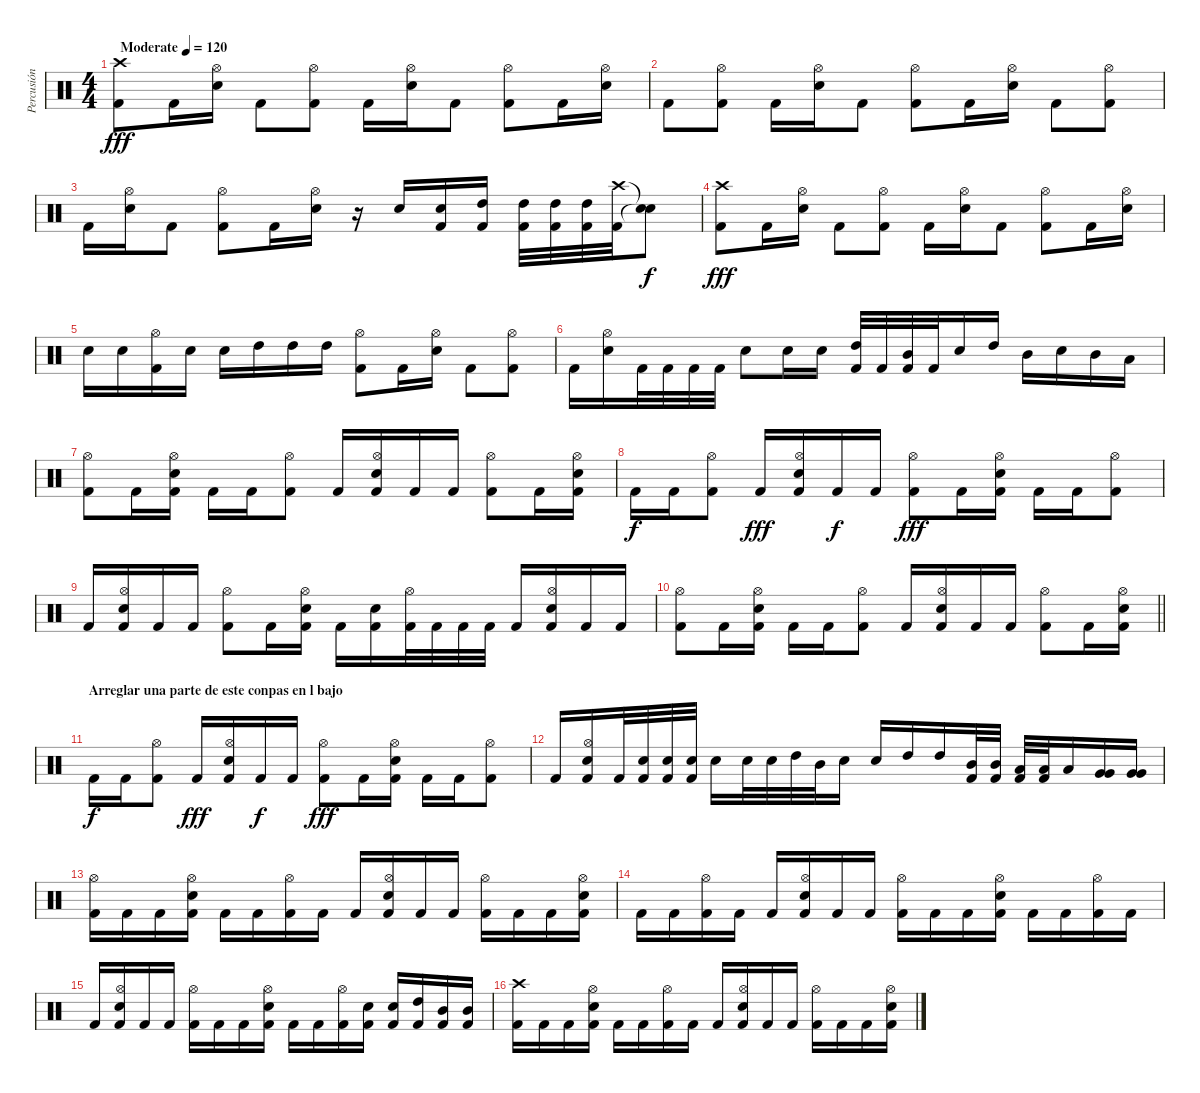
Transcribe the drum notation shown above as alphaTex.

\track ("Percusión" "Percusión") {instrument percussion}
\staff {score}
\articulation defaults
\ts (4 4)
\tempo (120 "Moderate")
\clef neutral
\ks c
("Crash high (hit)" "Kick (hit) 2").8{dy fff} "Kick (hit) 2".16 ("Hi-Hat (open)" "Electric Snare (hit)").16 "Kick (hit) 2".8 ("Hi-Hat (open)" "Kick (hit) 2").8 "Kick (hit) 2".16 ("Hi-Hat (open)" "Electric Snare (hit)").16 "Kick (hit) 2".8 ("Hi-Hat (open)" "Kick (hit) 2").8 "Kick (hit) 2".16 ("Hi-Hat (open)" "Electric Snare (hit)").16 |
"Kick (hit) 2".8 ("Hi-Hat (open)" "Kick (hit) 2").8 "Kick (hit) 2".16 ("Hi-Hat (open)" "Electric Snare (hit)").16 "Kick (hit) 2".8 ("Hi-Hat (open)" "Kick (hit) 2").8 "Kick (hit) 2".16 ("Hi-Hat (open)" "Electric Snare (hit)").16 "Kick (hit) 2".8 ("Hi-Hat (open)" "Kick (hit) 2").8 |
"Kick (hit) 2".16 ("Hi-Hat (open)" "Electric Snare (hit)").16 "Kick (hit) 2".8 ("Hi-Hat (open)" "Kick (hit) 2").8 "Kick (hit) 2".16 ("Hi-Hat (open)" "Electric Snare (hit)").16 r.16 "Electric Snare (hit)".16 ("Electric Snare (hit)" "Kick (hit) 2").16 ("High Tom (hit)" "Kick (hit) 2").16 ("High Tom (hit)" "Kick (hit) 2").32 ("High Tom (hit)" "Kick (hit) 2").32 ("High Tom (hit)" "Kick (hit) 2").32 ("Crash high (hit)" "Kick (hit) 2").32 ("Snare (hit)"{t} "Snare (hit)"{t}).8{dy f} |
("Crash high (hit)" "Kick (hit) 2").8{dy fff} "Kick (hit) 2".16 ("Hi-Hat (open)" "Electric Snare (hit)").16 "Kick (hit) 2".8 ("Hi-Hat (open)" "Kick (hit) 2").8 "Kick (hit) 2".16 ("Hi-Hat (open)" "Electric Snare (hit)").16 "Kick (hit) 2".8 ("Hi-Hat (open)" "Kick (hit) 2").8 "Kick (hit) 2".16 ("Hi-Hat (open)" "Electric Snare (hit)").16 |
"Electric Snare (hit)".16 "Electric Snare (hit)".16 ("Hi-Hat (open)" "Kick (hit) 2").16 "Electric Snare (hit)".16 "Electric Snare (hit)".16 "High Tom (hit)".16 "High Tom (hit)".16 "High Tom (hit)".16 ("Hi-Hat (open)" "Kick (hit) 2").8 "Kick (hit) 2".16 ("Hi-Hat (open)" "Electric Snare (hit)").16 "Kick (hit) 2".8 ("Hi-Hat (open)" "Kick (hit) 2").8 |
"Kick (hit) 2".16 ("Hi-Hat (open)" "Electric Snare (hit)").16 "Kick (hit) 2".32 "Kick (hit) 2".32 "Kick (hit) 2".32 "Kick (hit) 2".32 "Electric Snare (hit)".8 "Electric Snare (hit)".16 "Electric Snare (hit)".16 ("High Tom (hit)" "Kick (hit) 2").32 "Kick (hit) 2".32 ("Mid Tom (hit)" "Kick (hit) 2").32 "Kick (hit) 2".32 "Electric Snare (hit)".16 "High Tom (hit)".16 "Mid Tom (hit)".16 "Electric Snare (hit)".16 "Mid Tom (hit)".16 "Low Tom (hit)".16 |
("Hi-Hat (open)" "Kick (hit) 2").8 "Kick (hit) 2".16 ("Hi-Hat (open)" "Electric Snare (hit)" "Kick (hit) 2").16 "Kick (hit) 2".16 "Kick (hit) 2".16 ("Hi-Hat (open)" "Kick (hit) 2").8 "Kick (hit) 2".16 ("Hi-Hat (open)" "Electric Snare (hit)" "Kick (hit) 2").16 "Kick (hit) 2".16 "Kick (hit) 2".16 ("Hi-Hat (open)" "Kick (hit) 2").8 "Kick (hit) 2".16 ("Hi-Hat (open)" "Electric Snare (hit)" "Kick (hit) 2").16 |
"Kick (hit) 2".16{dy f} "Kick (hit) 2".16 ("Hi-Hat (open)" "Kick (hit) 2").8 "Kick (hit) 2".16{dy fff} ("Hi-Hat (open)" "Electric Snare (hit)" "Kick (hit) 2").16 "Kick (hit) 2".16{dy f} "Kick (hit) 2".16 ("Hi-Hat (open)" "Kick (hit) 2").8{dy fff} "Kick (hit) 2".16 ("Hi-Hat (open)" "Electric Snare (hit)" "Kick (hit) 2").16 "Kick (hit) 2".16 "Kick (hit) 2".16 ("Hi-Hat (open)" "Kick (hit) 2").8 |
"Kick (hit) 2".16 ("Hi-Hat (open)" "Electric Snare (hit)" "Kick (hit) 2").16 "Kick (hit) 2".16 "Kick (hit) 2".16 ("Hi-Hat (open)" "Kick (hit) 2").8 "Kick (hit) 2".16 ("Hi-Hat (open)" "Electric Snare (hit)" "Kick (hit) 2").16 "Kick (hit) 2".16 ("Electric Snare (hit)" "Kick (hit) 2").16 ("Hi-Hat (open)" "Kick (hit) 2").32 "Kick (hit) 2".32 "Kick (hit) 2".32 "Kick (hit) 2".32 "Kick (hit) 2".16 ("Hi-Hat (open)" "Electric Snare (hit)" "Kick (hit) 2").16 "Kick (hit) 2".16 "Kick (hit) 2".16 |
\barLineRight lightlight
("Hi-Hat (open)" "Kick (hit) 2").8 "Kick (hit) 2".16 ("Hi-Hat (open)" "Electric Snare (hit)" "Kick (hit) 2").16 "Kick (hit) 2".16 "Kick (hit) 2".16 ("Hi-Hat (open)" "Kick (hit) 2").8 "Kick (hit) 2".16 ("Hi-Hat (open)" "Electric Snare (hit)" "Kick (hit) 2").16 "Kick (hit) 2".16 "Kick (hit) 2".16 ("Hi-Hat (open)" "Kick (hit) 2").8 "Kick (hit) 2".16 ("Hi-Hat (open)" "Electric Snare (hit)" "Kick (hit) 2").16 |
\section ("" "Arreglar una parte de este conpas en l bajo")
"Kick (hit) 2".16{dy f} "Kick (hit) 2".16 ("Hi-Hat (open)" "Kick (hit) 2").8 "Kick (hit) 2".16{dy fff} ("Hi-Hat (open)" "Electric Snare (hit)" "Kick (hit) 2").16 "Kick (hit) 2".16{dy f} "Kick (hit) 2".16 ("Hi-Hat (open)" "Kick (hit) 2").8{dy fff} "Kick (hit) 2".16 ("Hi-Hat (open)" "Electric Snare (hit)" "Kick (hit) 2").16 "Kick (hit) 2".16 "Kick (hit) 2".16 ("Hi-Hat (open)" "Kick (hit) 2").8 |
"Kick (hit) 2".16 ("Hi-Hat (open)" "Electric Snare (hit)" "Kick (hit) 2").16 "Kick (hit) 2".32 ("Electric Snare (hit)" "Kick (hit) 2").32 ("Electric Snare (hit)" "Kick (hit) 2").32 ("Electric Snare (hit)" "Kick (hit) 2").32 "Electric Snare (hit)".16 "Electric Snare (hit)".32 "Electric Snare (hit)".32 "High Tom (hit)".32 "Mid Tom (hit)".32 "Electric Snare (hit)".16 "Electric Snare (hit)".16 "High Tom (hit)".16 "High Tom (hit)".16 ("Mid Tom (hit)" "Kick (hit) 2").32 ("Mid Tom (hit)" "Kick (hit) 2").32 ("Low Tom (hit)" "Kick (hit) 2").32 ("Low Tom (hit)" "Kick (hit) 2").32 "Low Tom (hit)".16 ("Very Low Tom (hit)" "Very Low Tom (hit)").16 ("Very Low Tom (hit)" "Very Low Tom (hit)").16 |
("Hi-Hat (open)" "Kick (hit) 2").16 "Kick (hit) 2".16 "Kick (hit) 2".16 ("Hi-Hat (open)" "Electric Snare (hit)" "Kick (hit) 2").16 "Kick (hit) 2".16 "Kick (hit) 2".16 ("Hi-Hat (open)" "Kick (hit) 2").16 "Kick (hit) 2".16 "Kick (hit) 2".16 ("Hi-Hat (open)" "Electric Snare (hit)" "Kick (hit) 2").16 "Kick (hit) 2".16 "Kick (hit) 2".16 ("Hi-Hat (open)" "Kick (hit) 2").16 "Kick (hit) 2".16 "Kick (hit) 2".16 ("Hi-Hat (open)" "Electric Snare (hit)" "Kick (hit) 2").16 |
"Kick (hit) 2".16 "Kick (hit) 2".16 ("Hi-Hat (open)" "Kick (hit) 2").16 "Kick (hit) 2".16 "Kick (hit) 2".16 ("Hi-Hat (open)" "Electric Snare (hit)" "Kick (hit) 2").16 "Kick (hit) 2".16 "Kick (hit) 2".16 ("Hi-Hat (open)" "Kick (hit) 2").16 "Kick (hit) 2".16 "Kick (hit) 2".16 ("Hi-Hat (open)" "Electric Snare (hit)" "Kick (hit) 2").16 "Kick (hit) 2".16 "Kick (hit) 2".16 ("Hi-Hat (open)" "Kick (hit) 2").16 "Kick (hit) 2".16 |
"Kick (hit) 2".16 ("Hi-Hat (open)" "Electric Snare (hit)" "Kick (hit) 2").16 "Kick (hit) 2".16 "Kick (hit) 2".16 ("Hi-Hat (open)" "Kick (hit) 2").16 "Kick (hit) 2".16 "Kick (hit) 2".16 ("Hi-Hat (open)" "Electric Snare (hit)" "Kick (hit) 2").16 "Kick (hit) 2".16 "Kick (hit) 2".16 ("Hi-Hat (open)" "Kick (hit) 2").16 ("Electric Snare (hit)" "Kick (hit) 2").16 ("Electric Snare (hit)" "Kick (hit) 2").16 ("High Tom (hit)" "Kick (hit) 2").16 ("Mid Tom (hit)" "Kick (hit) 2").16 ("Mid Tom (hit)" "Kick (hit) 2").16 |
("Crash high (hit)" "Kick (hit) 2").16 "Kick (hit) 2".16 "Kick (hit) 2".16 ("Hi-Hat (open)" "Electric Snare (hit)" "Kick (hit) 2").16 "Kick (hit) 2".16 "Kick (hit) 2".16 ("Hi-Hat (open)" "Kick (hit) 2").16 "Kick (hit) 2".16 "Kick (hit) 2".16 ("Hi-Hat (open)" "Electric Snare (hit)" "Kick (hit) 2").16 "Kick (hit) 2".16 "Kick (hit) 2".16 ("Hi-Hat (open)" "Kick (hit) 2").16 "Kick (hit) 2".16 "Kick (hit) 2".16 ("Hi-Hat (open)" "Electric Snare (hit)" "Kick (hit) 2").16
